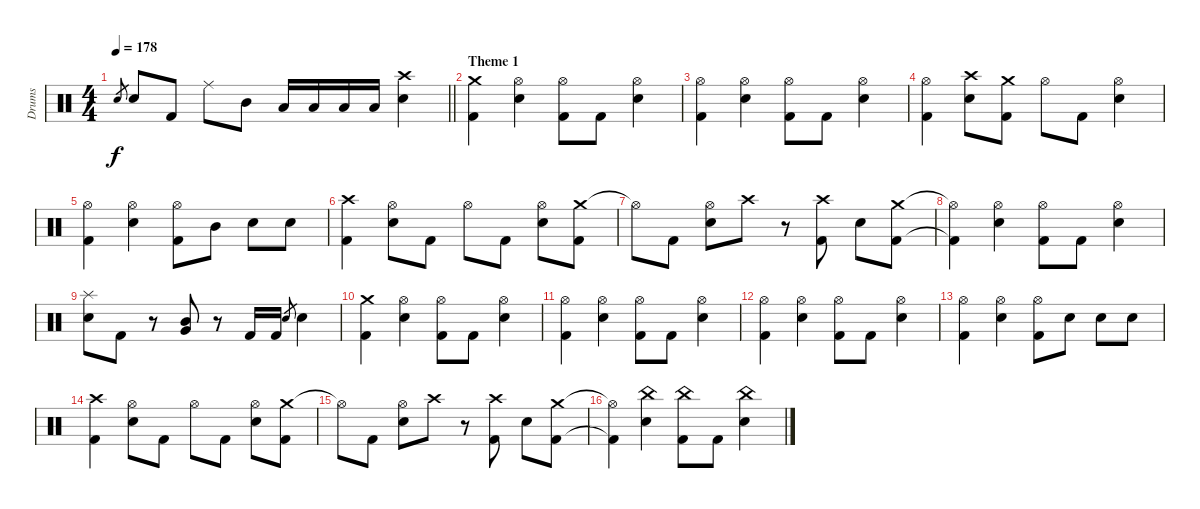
\track ("Drums" "Drums") {instrument percussion}
\staff {score}
\articulation defaults
\ts (4 4)
\tempo 178
\clef neutral
\barLineRight lightlight
\ks c "Snare (hit) 2".8{gr dy f} "Snare (hit) 2".8 "Kick (hit) 2".8 "Ride (middle)".8 "Mid Tom (hit)".8 "Low Tom (hit)".16 "Low Tom (hit)".16 "Low Tom (hit)".16 "Low Tom (hit)".16
("Crash high (hit)" "Snare (hit) 2").4 |
\section ("" "Theme 1")
("Crash medium (hit)" "Kick (hit) 2").4 ("Hi-Hat (open)" "Snare (hit) 2").4 ("Hi-Hat (open)" "Kick (hit) 2").8 "Kick (hit) 2".8 ("Hi-Hat (open)" "Snare (hit) 2").4 |
("Hi-Hat (open)" "Kick (hit) 2").4 ("Hi-Hat (open)" "Snare (hit) 2").4 ("Hi-Hat (open)" "Kick (hit) 2").8 "Kick (hit) 2".8 ("Hi-Hat (open)" "Snare (hit) 2").4 |
("Hi-Hat (open)" "Kick (hit) 2").4 ("Crash high (hit)" "Snare (hit) 2").8 ("Crash medium (hit)" "Kick (hit) 2").8 "Hi-Hat (open)".8 "Kick (hit) 2".8 ("Hi-Hat (open)" "Snare (hit) 2").4 |
("Hi-Hat (open)" "Kick (hit) 2").4 ("Hi-Hat (open)" "Snare (hit) 2").4 ("Hi-Hat (open)" "Kick (hit) 2").8 "Mid Tom (hit)".8 "Snare (hit) 2".8 "Snare (hit) 2".8 |
("Crash high (hit)" "Kick (hit) 2").4 ("Hi-Hat (open)" "Snare (hit) 2").8 "Kick (hit) 2".8 "Hi-Hat (open)".8 "Kick (hit) 2".8 ("Hi-Hat (open)" "Snare (hit) 2").8 ("Crash medium (hit)" "Kick (hit) 2").8 |
"Hi-Hat (open)"{t}.8 "Kick (hit) 2".8 ("Hi-Hat (open)" "Snare (hit) 2").8 "Crash high (hit)".8 r.8 ("Crash high (hit)" "Kick (hit) 2").8 "Snare (hit) 2".8 ("Crash medium (hit)" "Kick (hit) 2").8 |
("Hi-Hat (open)"{t} "Kick (hit) 2"{t}).4 ("Hi-Hat (open)" "Snare (hit) 2").4 ("Hi-Hat (open)" "Kick (hit) 2").8 "Kick (hit) 2".8 ("Hi-Hat (open)" "Snare (hit) 2").4 |
("Splash (hit)" "Snare (hit) 2").8 "Kick (hit) 2".8 r.8 ("Very Low Tom (hit)" "Mid Tom (hit)").8 r.8 "Kick (hit) 2".16 "Kick (hit) 2".16 "Snare (hit) 2".8{gr} "Snare (hit) 2".4 |
("Crash medium (hit)" "Kick (hit) 2").4 ("Hi-Hat (open)" "Snare (hit) 2").4 ("Hi-Hat (open)" "Kick (hit) 2").8 "Kick (hit) 2".8 ("Hi-Hat (open)" "Snare (hit) 2").4 |
("Hi-Hat (open)" "Kick (hit) 2").4 ("Hi-Hat (open)" "Snare (hit) 2").4 ("Hi-Hat (open)" "Kick (hit) 2").8 "Kick (hit) 2".8 ("Hi-Hat (open)" "Snare (hit) 2").4 |
("Hi-Hat (open)" "Kick (hit) 2").4 ("Hi-Hat (open)" "Snare (hit) 2").4 ("Hi-Hat (open)" "Kick (hit) 2").8 "Kick (hit) 2".8 ("Hi-Hat (open)" "Snare (hit) 2").4 |
("Hi-Hat (open)" "Kick (hit) 2").4 ("Hi-Hat (open)" "Snare (hit) 2").4 ("Hi-Hat (open)" "Kick (hit) 2").8 "Snare (hit) 2".8 "Snare (hit) 2".8 "Snare (hit) 2".8 |
("Crash high (hit)" "Kick (hit) 2").4 ("Hi-Hat (open)" "Snare (hit) 2").8 "Kick (hit) 2".8 "Hi-Hat (open)".8 "Kick (hit) 2".8 ("Hi-Hat (open)" "Snare (hit) 2").8 ("Crash medium (hit)" "Kick (hit) 2").8 |
"Hi-Hat (open)"{t}.8 "Kick (hit) 2".8 ("Hi-Hat (open)" "Snare (hit) 2").8 "Crash high (hit)".8 r.8 ("Crash high (hit)" "Kick (hit) 2").8 "Snare (hit) 2".8 ("Crash medium (hit)" "Kick (hit) 2").8 |
("Hi-Hat (open)"{t} "Kick (hit) 2"{t}).4 ("China (hit)" "Snare (hit) 2").4 ("China (hit)" "Kick (hit) 2").8 "Kick (hit) 2".8 ("China (hit)" "Snare (hit) 2").4
